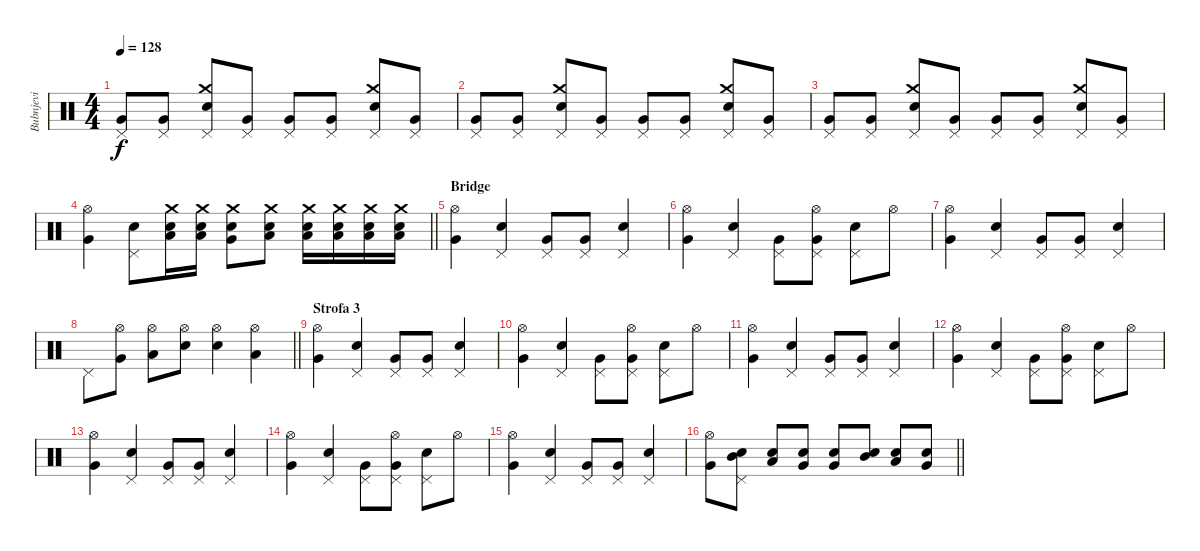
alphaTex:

\track ("Bubnjevi" "Bubnjevi") {instrument percussion}
\staff {score}
\articulation defaults
\ts (4 4)
\tempo 128
\clef neutral
\ks c
("Pedal Hi-Hat (hit)" "Very Low Tom (hit)").8{dy f} ("Pedal Hi-Hat (hit)" "Very Low Tom (hit)").8 ("Crash medium (hit)" "Pedal Hi-Hat (hit)" "Electric Snare (hit)").8 ("Pedal Hi-Hat (hit)" "Very Low Tom (hit)").8 ("Pedal Hi-Hat (hit)" "Very Low Tom (hit)").8 ("Pedal Hi-Hat (hit)" "Very Low Tom (hit)").8 ("Crash medium (hit)" "Pedal Hi-Hat (hit)" "Electric Snare (hit)").8 ("Pedal Hi-Hat (hit)" "Very Low Tom (hit)").8 |
("Pedal Hi-Hat (hit)" "Very Low Tom (hit)").8 ("Pedal Hi-Hat (hit)" "Very Low Tom (hit)").8 ("Crash medium (hit)" "Pedal Hi-Hat (hit)" "Electric Snare (hit)").8 ("Pedal Hi-Hat (hit)" "Very Low Tom (hit)").8 ("Pedal Hi-Hat (hit)" "Very Low Tom (hit)").8 ("Pedal Hi-Hat (hit)" "Very Low Tom (hit)").8 ("Crash medium (hit)" "Pedal Hi-Hat (hit)" "Electric Snare (hit)").8 ("Pedal Hi-Hat (hit)" "Very Low Tom (hit)").8 |
("Pedal Hi-Hat (hit)" "Very Low Tom (hit)").8 ("Pedal Hi-Hat (hit)" "Very Low Tom (hit)").8 ("Crash medium (hit)" "Pedal Hi-Hat (hit)" "Electric Snare (hit)").8 ("Pedal Hi-Hat (hit)" "Very Low Tom (hit)").8 ("Pedal Hi-Hat (hit)" "Very Low Tom (hit)").8 ("Pedal Hi-Hat (hit)" "Very Low Tom (hit)").8 ("Crash medium (hit)" "Pedal Hi-Hat (hit)" "Electric Snare (hit)").8 ("Pedal Hi-Hat (hit)" "Very Low Tom (hit)").8 |
\barLineRight lightlight
("Hi-Hat (open)" "Very Low Tom (hit)").4 ("Pedal Hi-Hat (hit)" "Electric Snare (hit)").8 ("Crash medium (hit)" "Electric Snare (hit)" "Low Tom (hit)").16 ("Crash medium (hit)" "Electric Snare (hit)" "Low Tom (hit)").16 ("Crash medium (hit)" "Electric Snare (hit)" "Very Low Tom (hit)").8 ("Crash medium (hit)" "Electric Snare (hit)" "Low Tom (hit)").8 ("Crash medium (hit)" "Electric Snare (hit)" "Low Tom (hit)").16 ("Crash medium (hit)" "Electric Snare (hit)" "Low Tom (hit)").16 ("Crash medium (hit)" "Electric Snare (hit)" "Low Tom (hit)").16 ("Crash medium (hit)" "Electric Snare (hit)" "Low Tom (hit)").16 |
\section ("" "Bridge")
("Hi-Hat (open)" "Very Low Tom (hit)").4 ("Pedal Hi-Hat (hit)" "Electric Snare (hit)").4 ("Pedal Hi-Hat (hit)" "Very Low Tom (hit)").8 ("Pedal Hi-Hat (hit)" "Very Low Tom (hit)").8 ("Pedal Hi-Hat (hit)" "Electric Snare (hit)").4 |
("Hi-Hat (open)" "Very Low Tom (hit)").4 ("Pedal Hi-Hat (hit)" "Electric Snare (hit)").4 ("Pedal Hi-Hat (hit)" "Very Low Tom (hit)").8 ("Pedal Hi-Hat (hit)" "Hi-Hat (open)" "Very Low Tom (hit)").8 ("Pedal Hi-Hat (hit)" "Electric Snare (hit)").8 "Hi-Hat (open)".8 |
("Hi-Hat (open)" "Very Low Tom (hit)").4 ("Pedal Hi-Hat (hit)" "Electric Snare (hit)").4 ("Pedal Hi-Hat (hit)" "Very Low Tom (hit)").8 ("Pedal Hi-Hat (hit)" "Very Low Tom (hit)").8 ("Pedal Hi-Hat (hit)" "Electric Snare (hit)").4 |
\barLineRight lightlight "Pedal Hi-Hat (hit)".8
("Hi-Hat (open)" "Very Low Tom (hit)").8 ("Hi-Hat (open)" "Low Tom (hit)").8 ("Hi-Hat (open)" "Electric Snare (hit)").8 ("Hi-Hat (open)" "Electric Snare (hit)").4 ("Hi-Hat (open)" "Low Tom (hit)").4 |
\section ("" "Strofa 3")
("Hi-Hat (open)" "Very Low Tom (hit)").4 ("Pedal Hi-Hat (hit)" "Electric Snare (hit)").4 ("Pedal Hi-Hat (hit)" "Very Low Tom (hit)").8 ("Pedal Hi-Hat (hit)" "Very Low Tom (hit)").8 ("Pedal Hi-Hat (hit)" "Electric Snare (hit)").4 |
("Hi-Hat (open)" "Very Low Tom (hit)").4 ("Pedal Hi-Hat (hit)" "Electric Snare (hit)").4 ("Pedal Hi-Hat (hit)" "Very Low Tom (hit)").8 ("Pedal Hi-Hat (hit)" "Hi-Hat (open)" "Very Low Tom (hit)").8 ("Pedal Hi-Hat (hit)" "Electric Snare (hit)").8 "Hi-Hat (open)".8 |
("Hi-Hat (open)" "Very Low Tom (hit)").4 ("Pedal Hi-Hat (hit)" "Electric Snare (hit)").4 ("Pedal Hi-Hat (hit)" "Very Low Tom (hit)").8 ("Pedal Hi-Hat (hit)" "Very Low Tom (hit)").8 ("Pedal Hi-Hat (hit)" "Electric Snare (hit)").4 |
("Hi-Hat (open)" "Very Low Tom (hit)").4 ("Pedal Hi-Hat (hit)" "Electric Snare (hit)").4 ("Pedal Hi-Hat (hit)" "Very Low Tom (hit)").8 ("Pedal Hi-Hat (hit)" "Hi-Hat (open)" "Very Low Tom (hit)").8 ("Pedal Hi-Hat (hit)" "Electric Snare (hit)").8 "Hi-Hat (open)".8 |
("Hi-Hat (open)" "Very Low Tom (hit)").4 ("Pedal Hi-Hat (hit)" "Electric Snare (hit)").4 ("Pedal Hi-Hat (hit)" "Very Low Tom (hit)").8 ("Pedal Hi-Hat (hit)" "Very Low Tom (hit)").8 ("Pedal Hi-Hat (hit)" "Electric Snare (hit)").4 |
("Hi-Hat (open)" "Very Low Tom (hit)").4 ("Pedal Hi-Hat (hit)" "Electric Snare (hit)").4 ("Pedal Hi-Hat (hit)" "Very Low Tom (hit)").8 ("Pedal Hi-Hat (hit)" "Hi-Hat (open)" "Very Low Tom (hit)").8 ("Pedal Hi-Hat (hit)" "Electric Snare (hit)").8 "Hi-Hat (open)".8 |
("Hi-Hat (open)" "Very Low Tom (hit)").4 ("Pedal Hi-Hat (hit)" "Electric Snare (hit)").4 ("Pedal Hi-Hat (hit)" "Very Low Tom (hit)").8 ("Pedal Hi-Hat (hit)" "Very Low Tom (hit)").8 ("Pedal Hi-Hat (hit)" "Electric Snare (hit)").4 |
\barLineRight lightlight
("Hi-Hat (open)" "Very Low Tom (hit)").8 ("Pedal Hi-Hat (hit)" "Electric Snare (hit)" "Mid Tom (hit)").8 ("Electric Snare (hit)" "Low Tom (hit)").8 ("Electric Snare (hit)" "Very Low Tom (hit)").8 ("Electric Snare (hit)" "Very Low Tom (hit)").8 ("Electric Snare (hit)" "Mid Tom (hit)").8 ("Electric Snare (hit)" "Low Tom (hit)").8 ("Very Low Tom (hit)" "Electric Snare (hit)").8
